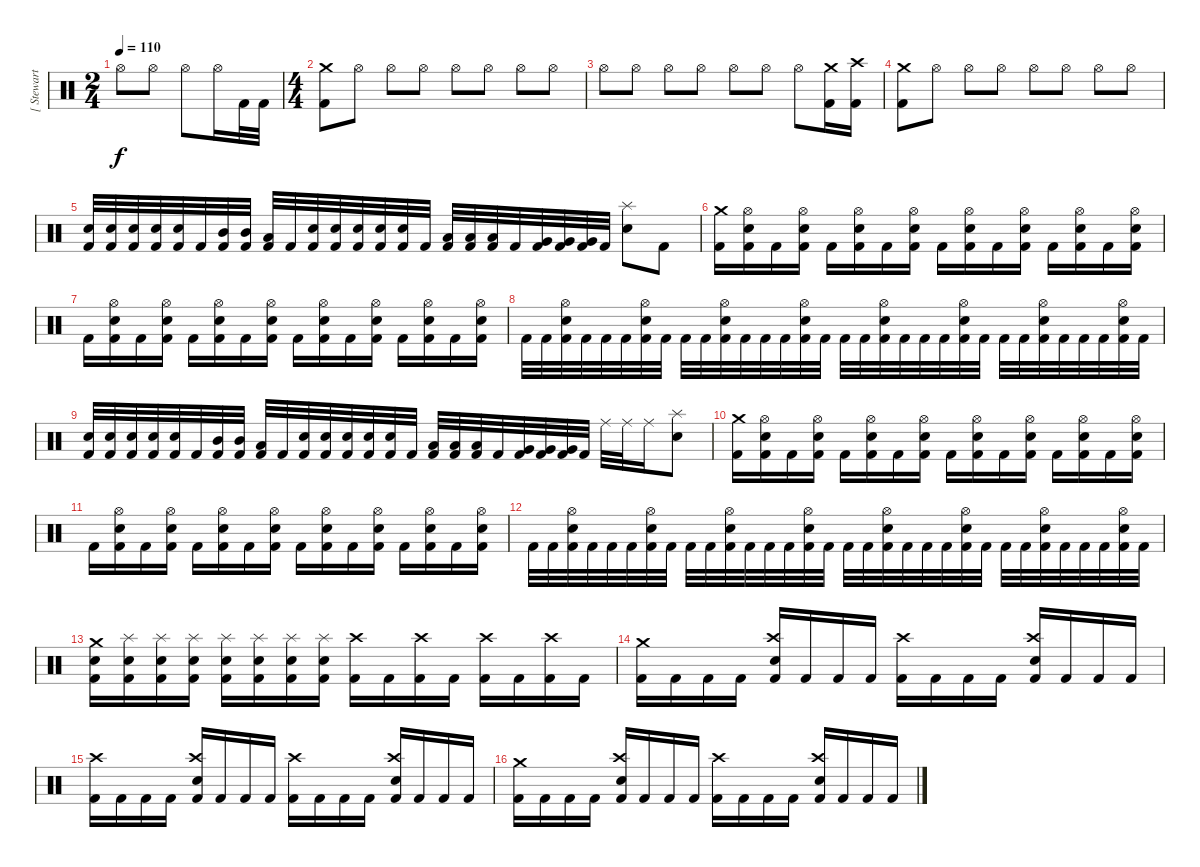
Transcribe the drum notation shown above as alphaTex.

\track ("[ Stewart ]" "[ Stewart ") {instrument percussion}
\staff {score}
\articulation defaults
\ts (2 4)
\tempo 110
\clef neutral
\ks c "Hi-Hat (open)".8{dy f} "Hi-Hat (open)".8 "Hi-Hat (open)".8 "Hi-Hat (open)".16 "Kick (hit) 2".32 "Kick (hit) 2".32
|
\ts (4 4)
("Kick (hit) 2" "Crash medium (hit)").8 "Hi-Hat (open)".8 "Hi-Hat (open)".8 "Hi-Hat (open)".8 "Hi-Hat (open)".8 "Hi-Hat (open)".8 "Hi-Hat (open)".8 "Hi-Hat (open)".8 |
"Hi-Hat (open)".8 "Hi-Hat (open)".8 "Hi-Hat (open)".8 "Hi-Hat (open)".8 "Hi-Hat (open)".8 "Hi-Hat (open)".8 "Hi-Hat (open)".8 ("Kick (hit) 2" "Crash medium (hit)").16 ("Kick (hit) 2" "Crash high (hit)").16 |
("Kick (hit) 2" "Crash medium (hit)").8 "Hi-Hat (open)".8 "Hi-Hat (open)".8 "Hi-Hat (open)".8 "Hi-Hat (open)".8 "Hi-Hat (open)".8 "Hi-Hat (open)".8 "Hi-Hat (open)".8 |
("Electric Snare (hit)" "Kick (hit) 2").32 ("Electric Snare (hit)" "Kick (hit) 2").32 ("Electric Snare (hit)" "Kick (hit) 2").32 ("Electric Snare (hit)" "Kick (hit) 2").32 ("Electric Snare (hit)" "Kick (hit) 2").32 "Kick (hit) 2".32 ("Mid Tom (hit)" "Kick (hit) 2").32 ("Mid Tom (hit)" "Kick (hit) 2").32 ("Low Tom (hit)" "Kick (hit) 2").32 "Kick (hit) 2".32 ("Electric Snare (hit)" "Kick (hit) 2").32 ("Electric Snare (hit)" "Kick (hit) 2").32 ("Electric Snare (hit)" "Kick (hit) 2").32 ("Electric Snare (hit)" "Kick (hit) 2").32 ("Electric Snare (hit)" "Kick (hit) 2").32 "Kick (hit) 2".32 ("Low Tom (hit)" "Kick (hit) 2").32 ("Low Tom (hit)" "Kick (hit) 2").32 ("Low Tom (hit)" "Kick (hit) 2").32 "Kick (hit) 2".32 ("Very Low Tom (hit)" "Kick (hit) 2").32 ("Very Low Tom (hit)" "Kick (hit) 2").32 ("Very Low Tom (hit)" "Kick (hit) 2").32 "Kick (hit) 2".32 ("Electric Snare (hit)" "Splash (hit)").8 "Kick (hit) 2".8 |
("Kick (hit) 2" "Crash medium (hit)").16 ("Kick (hit) 2" "Electric Snare (hit)" "Hi-Hat (open)").16 "Kick (hit) 2".16 ("Kick (hit) 2" "Electric Snare (hit)" "Hi-Hat (open)").16 "Kick (hit) 2".16 ("Kick (hit) 2" "Electric Snare (hit)" "Hi-Hat (open)").16 "Kick (hit) 2".16 ("Kick (hit) 2" "Electric Snare (hit)" "Hi-Hat (open)").16 "Kick (hit) 2".16 ("Kick (hit) 2" "Electric Snare (hit)" "Hi-Hat (open)").16 "Kick (hit) 2".16 ("Kick (hit) 2" "Electric Snare (hit)" "Hi-Hat (open)").16 "Kick (hit) 2".16 ("Kick (hit) 2" "Electric Snare (hit)" "Hi-Hat (open)").16 "Kick (hit) 2".16 ("Kick (hit) 2" "Electric Snare (hit)" "Hi-Hat (open)").16 |
"Kick (hit) 2".16 ("Kick (hit) 2" "Electric Snare (hit)" "Hi-Hat (open)").16 "Kick (hit) 2".16 ("Kick (hit) 2" "Electric Snare (hit)" "Hi-Hat (open)").16 "Kick (hit) 2".16 ("Kick (hit) 2" "Electric Snare (hit)" "Hi-Hat (open)").16 "Kick (hit) 2".16 ("Kick (hit) 2" "Electric Snare (hit)" "Hi-Hat (open)").16 "Kick (hit) 2".16 ("Kick (hit) 2" "Electric Snare (hit)" "Hi-Hat (open)").16 "Kick (hit) 2".16 ("Kick (hit) 2" "Electric Snare (hit)" "Hi-Hat (open)").16 "Kick (hit) 2".16 ("Kick (hit) 2" "Electric Snare (hit)" "Hi-Hat (open)").16 "Kick (hit) 2".16 ("Kick (hit) 2" "Electric Snare (hit)" "Hi-Hat (open)").16 |
"Kick (hit) 2".32 "Kick (hit) 2".32 ("Kick (hit) 2" "Electric Snare (hit)" "Hi-Hat (open)").32 "Kick (hit) 2".32 "Kick (hit) 2".32 "Kick (hit) 2".32 ("Kick (hit) 2" "Electric Snare (hit)" "Hi-Hat (open)").32 "Kick (hit) 2".32 "Kick (hit) 2".32 "Kick (hit) 2".32 ("Kick (hit) 2" "Electric Snare (hit)" "Hi-Hat (open)").32 "Kick (hit) 2".32 "Kick (hit) 2".32 "Kick (hit) 2".32 ("Kick (hit) 2" "Electric Snare (hit)" "Hi-Hat (open)").32 "Kick (hit) 2".32 "Kick (hit) 2".32 "Kick (hit) 2".32 ("Kick (hit) 2" "Electric Snare (hit)" "Hi-Hat (open)").32 "Kick (hit) 2".32 "Kick (hit) 2".32 "Kick (hit) 2".32 ("Kick (hit) 2" "Electric Snare (hit)" "Hi-Hat (open)").32 "Kick (hit) 2".32 "Kick (hit) 2".32 "Kick (hit) 2".32 ("Kick (hit) 2" "Electric Snare (hit)" "Hi-Hat (open)").32 "Kick (hit) 2".32 "Kick (hit) 2".32 "Kick (hit) 2".32 ("Kick (hit) 2" "Electric Snare (hit)" "Hi-Hat (open)").32 "Kick (hit) 2".32 |
("Electric Snare (hit)" "Kick (hit) 2").32 ("Electric Snare (hit)" "Kick (hit) 2").32 ("Electric Snare (hit)" "Kick (hit) 2").32 ("Electric Snare (hit)" "Kick (hit) 2").32 ("Electric Snare (hit)" "Kick (hit) 2").32 "Kick (hit) 2".32 ("Mid Tom (hit)" "Kick (hit) 2").32 ("Mid Tom (hit)" "Kick (hit) 2").32 ("Low Tom (hit)" "Kick (hit) 2").32 "Kick (hit) 2".32 ("Electric Snare (hit)" "Kick (hit) 2").32 ("Electric Snare (hit)" "Kick (hit) 2").32 ("Electric Snare (hit)" "Kick (hit) 2").32 ("Electric Snare (hit)" "Kick (hit) 2").32 ("Electric Snare (hit)" "Kick (hit) 2").32 "Kick (hit) 2".32 ("Low Tom (hit)" "Kick (hit) 2").32 ("Low Tom (hit)" "Kick (hit) 2").32 ("Low Tom (hit)" "Kick (hit) 2").32 "Kick (hit) 2".32 ("Very Low Tom (hit)" "Kick (hit) 2").32 ("Very Low Tom (hit)" "Kick (hit) 2").32 ("Very Low Tom (hit)" "Kick (hit) 2").32 "Kick (hit) 2".32 "Ride (middle)".32 "Ride (middle)".32 "Ride (middle)".16 ("Electric Snare (hit)" "Splash (hit)").8 |
("Kick (hit) 2" "Crash medium (hit)").16 ("Kick (hit) 2" "Electric Snare (hit)" "Hi-Hat (open)").16 "Kick (hit) 2".16 ("Kick (hit) 2" "Electric Snare (hit)" "Hi-Hat (open)").16 "Kick (hit) 2".16 ("Kick (hit) 2" "Electric Snare (hit)" "Hi-Hat (open)").16 "Kick (hit) 2".16 ("Kick (hit) 2" "Electric Snare (hit)" "Hi-Hat (open)").16 "Kick (hit) 2".16 ("Kick (hit) 2" "Electric Snare (hit)" "Hi-Hat (open)").16 "Kick (hit) 2".16 ("Kick (hit) 2" "Electric Snare (hit)" "Hi-Hat (open)").16 "Kick (hit) 2".16 ("Kick (hit) 2" "Electric Snare (hit)" "Hi-Hat (open)").16 "Kick (hit) 2".16 ("Kick (hit) 2" "Electric Snare (hit)" "Hi-Hat (open)").16 |
"Kick (hit) 2".16 ("Kick (hit) 2" "Electric Snare (hit)" "Hi-Hat (open)").16 "Kick (hit) 2".16 ("Kick (hit) 2" "Electric Snare (hit)" "Hi-Hat (open)").16 "Kick (hit) 2".16 ("Kick (hit) 2" "Electric Snare (hit)" "Hi-Hat (open)").16 "Kick (hit) 2".16 ("Kick (hit) 2" "Electric Snare (hit)" "Hi-Hat (open)").16 "Kick (hit) 2".16 ("Kick (hit) 2" "Electric Snare (hit)" "Hi-Hat (open)").16 "Kick (hit) 2".16 ("Kick (hit) 2" "Electric Snare (hit)" "Hi-Hat (open)").16 "Kick (hit) 2".16 ("Kick (hit) 2" "Electric Snare (hit)" "Hi-Hat (open)").16 "Kick (hit) 2".16 ("Kick (hit) 2" "Electric Snare (hit)" "Hi-Hat (open)").16 |
"Kick (hit) 2".32 "Kick (hit) 2".32 ("Kick (hit) 2" "Electric Snare (hit)" "Hi-Hat (open)").32 "Kick (hit) 2".32 "Kick (hit) 2".32 "Kick (hit) 2".32 ("Kick (hit) 2" "Electric Snare (hit)" "Hi-Hat (open)").32 "Kick (hit) 2".32 "Kick (hit) 2".32 "Kick (hit) 2".32 ("Kick (hit) 2" "Electric Snare (hit)" "Hi-Hat (open)").32 "Kick (hit) 2".32 "Kick (hit) 2".32 "Kick (hit) 2".32 ("Kick (hit) 2" "Electric Snare (hit)" "Hi-Hat (open)").32 "Kick (hit) 2".32 "Kick (hit) 2".32 "Kick (hit) 2".32 ("Kick (hit) 2" "Electric Snare (hit)" "Hi-Hat (open)").32 "Kick (hit) 2".32 "Kick (hit) 2".32 "Kick (hit) 2".32 ("Kick (hit) 2" "Electric Snare (hit)" "Hi-Hat (open)").32 "Kick (hit) 2".32 "Kick (hit) 2".32 "Kick (hit) 2".32 ("Kick (hit) 2" "Electric Snare (hit)" "Hi-Hat (open)").32 "Kick (hit) 2".32 "Kick (hit) 2".32 "Kick (hit) 2".32 ("Kick (hit) 2" "Electric Snare (hit)" "Hi-Hat (open)").32 "Kick (hit) 2".32 |
("Kick (hit) 2" "Electric Snare (hit)" "Crash medium (hit)").16 ("Kick (hit) 2" "Electric Snare (hit)" "Splash (hit)").16 ("Kick (hit) 2" "Electric Snare (hit)" "Splash (hit)").16 ("Kick (hit) 2" "Electric Snare (hit)" "Splash (hit)").16 ("Kick (hit) 2" "Electric Snare (hit)" "Splash (hit)").16 ("Kick (hit) 2" "Electric Snare (hit)" "Splash (hit)").16 ("Kick (hit) 2" "Electric Snare (hit)" "Splash (hit)").16 ("Kick (hit) 2" "Electric Snare (hit)" "Splash (hit)").16 ("Kick (hit) 2" "Crash high (hit)").16 "Kick (hit) 2".16 ("Kick (hit) 2" "Crash high (hit)").16 "Kick (hit) 2".16 ("Kick (hit) 2" "Crash high (hit)").16 "Kick (hit) 2".16 ("Kick (hit) 2" "Crash high (hit)").16 "Kick (hit) 2".16 |
("Kick (hit) 2" "Crash medium (hit)").16 "Kick (hit) 2".16 "Kick (hit) 2".16 "Kick (hit) 2".16 ("Kick (hit) 2" "Electric Snare (hit)" "Crash high (hit)").16 "Kick (hit) 2".16 "Kick (hit) 2".16 "Kick (hit) 2".16 ("Kick (hit) 2" "Crash high (hit)").16 "Kick (hit) 2".16 "Kick (hit) 2".16 "Kick (hit) 2".16 ("Kick (hit) 2" "Electric Snare (hit)" "Crash high (hit)").16 "Kick (hit) 2".16 "Kick (hit) 2".16 "Kick (hit) 2".16 |
("Kick (hit) 2" "Crash high (hit)").16 "Kick (hit) 2".16 "Kick (hit) 2".16 "Kick (hit) 2".16 ("Kick (hit) 2" "Electric Snare (hit)" "Crash high (hit)").16 "Kick (hit) 2".16 "Kick (hit) 2".16 "Kick (hit) 2".16 ("Kick (hit) 2" "Crash high (hit)").16 "Kick (hit) 2".16 "Kick (hit) 2".16 "Kick (hit) 2".16 ("Kick (hit) 2" "Electric Snare (hit)" "Crash high (hit)").16 "Kick (hit) 2".16 "Kick (hit) 2".16 "Kick (hit) 2".16 |
("Kick (hit) 2" "Crash medium (hit)").16 "Kick (hit) 2".16 "Kick (hit) 2".16 "Kick (hit) 2".16 ("Kick (hit) 2" "Electric Snare (hit)" "Crash high (hit)").16 "Kick (hit) 2".16 "Kick (hit) 2".16 "Kick (hit) 2".16 ("Kick (hit) 2" "Crash high (hit)").16 "Kick (hit) 2".16 "Kick (hit) 2".16 "Kick (hit) 2".16 ("Kick (hit) 2" "Electric Snare (hit)" "Crash high (hit)").16 "Kick (hit) 2".16 "Kick (hit) 2".16 "Kick (hit) 2".16
